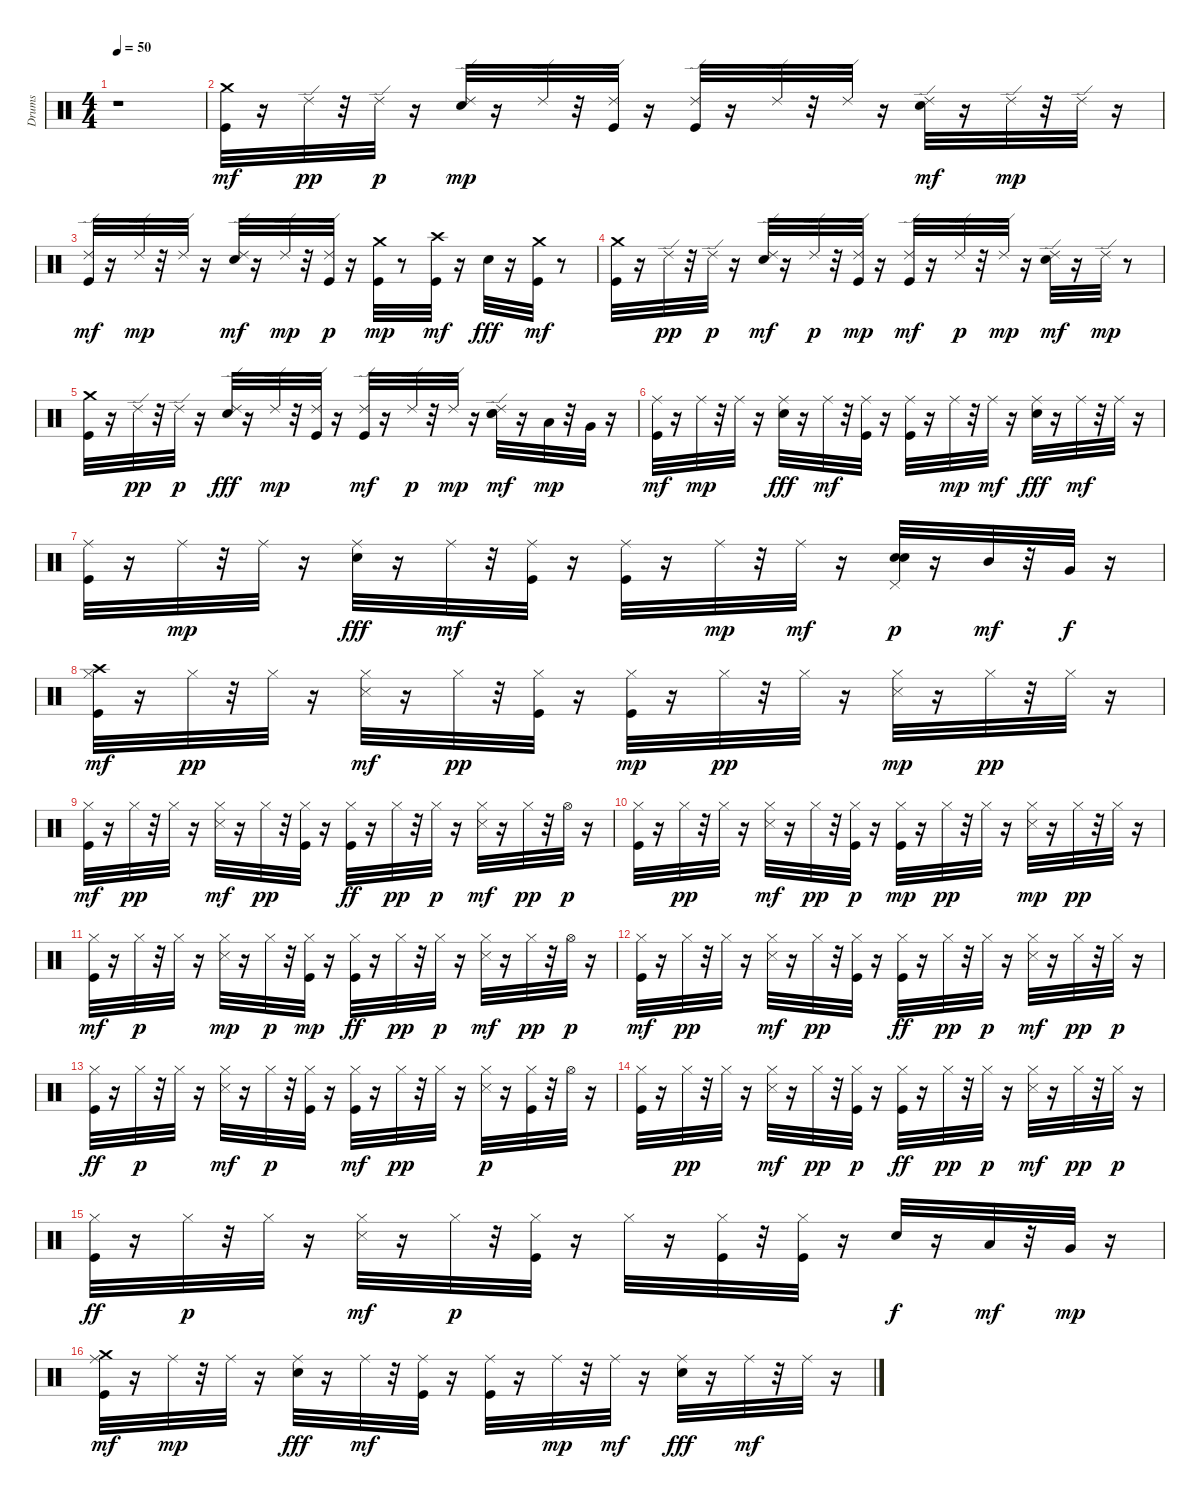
\track ("Drums" "Drums") {instrument percussion}
\staff {score}
\articulation defaults
\ts (4 4)
\tempo 50
\clef neutral
\ks c
r.1{dy mf} |
("Kick (hit)" "Crash medium (hit)").32{balance 8} r.16 "Ride (edge) 2".32{dy pp} r.32 "Ride (edge) 2".32{dy p} r.16 ("Snare (hit) 2" "Ride (edge) 2").32{dy mp} r.16 "Ride (edge) 2".32 r.32 ("Kick (hit)" "Ride (edge) 2").32 r.16 ("Kick (hit)" "Ride (edge) 2").32 r.16 "Ride (edge) 2".32 r.32 "Ride (edge) 2".32 r.16 ("Snare (hit) 2" "Ride (edge) 2").32{dy mf} r.16 "Ride (edge) 2".32{dy mp} r.32 "Ride (edge) 2".32 r.16 |
("Kick (hit)" "Ride (edge) 2").32{dy mf} r.16 "Ride (edge) 2".32{dy mp} r.32 "Ride (edge) 2".32 r.16 ("Snare (hit) 2" "Ride (edge) 2").32{dy mf} r.16 "Ride (edge) 2".32{dy mp} r.32 ("Kick (hit)" "Ride (edge) 2").32{dy p} r.16 ("Kick (hit)" "Crash medium (hit)").32{dy mp} r.8 ("Kick (hit)" "Crash high (hit)").32{dy mf} r.16 "Snare (hit) 2".32{dy fff} r.16 ("Kick (hit)" "Crash medium (hit)").32{dy mf} r.8 |
("Kick (hit)" "Crash medium (hit)").32 r.16 "Ride (edge) 2".32{dy pp} r.32 "Ride (edge) 2".32{dy p} r.16 ("Snare (hit) 2" "Ride (edge) 2").32{dy mf} r.16 "Ride (edge) 2".32{dy p} r.32 ("Kick (hit)" "Ride (edge) 2").32{dy mp} r.16 ("Kick (hit)" "Ride (edge) 2").32{dy mf} r.16 "Ride (edge) 2".32{dy p} r.32 "Ride (edge) 2".32{dy mp} r.16 ("Snare (hit) 2" "Ride (edge) 2").32{dy mf} r.16 "Ride (edge) 2".32{dy mp} r.8 |
("Kick (hit)" "Crash medium (hit)").32 r.16 "Ride (edge) 2".32{dy pp} r.32 "Ride (edge) 2".32{dy p} r.16 ("Snare (hit) 2" "Ride (edge) 2").32{dy fff} r.16 "Ride (edge) 2".32{dy mp} r.32 ("Kick (hit)" "Ride (edge) 2").32 r.16 ("Kick (hit)" "Ride (edge) 2").32{dy mf} r.16 "Ride (edge) 2".32{dy p} r.32 "Ride (edge) 2".32{dy mp} r.16 ("Snare (hit) 2" "Snare (hit) 2" "Ride (edge) 2").32{dy mf} r.16 "Low Tom (hit)".32{dy mp} r.32 "Very Low Tom (hit)".32 r.16 |
("Kick (hit)" "Ride (middle)").32{dy mf} r.16 "Ride (middle)".32{dy mp} r.32 "Ride (middle)".32 r.16 ("Snare (hit) 2" "Ride (middle)").32{dy fff} r.16 "Ride (middle)".32{dy mf} r.32 ("Kick (hit)" "Ride (middle)").32 r.16 ("Kick (hit)" "Ride (middle)").32 r.16 "Ride (middle)".32{dy mp} r.32 "Ride (middle)".32{dy mf} r.16 ("Snare (hit) 2" "Ride (middle)").32{dy fff} r.16 "Ride (middle)".32{dy mf} r.32 "Ride (middle)".32 r.16 |
("Kick (hit)" "Ride (middle)").32 r.16 "Ride (middle)".32{dy mp} r.32 "Ride (middle)".32 r.16 ("Snare (hit) 2" "Ride (middle)").32{dy fff} r.16 "Ride (middle)".32{dy mf} r.32 ("Kick (hit)" "Ride (middle)").32 r.16 ("Kick (hit)" "Ride (middle)").32 r.16 "Ride (middle)".32{dy mp} r.32 "Ride (middle)".32{dy mf} r.16 ("Snare (hit) 2" "Snare (hit) 2" "Pedal Hi-Hat (hit)").32{dy p} r.16 "Mid Tom (hit)".32{dy mf} r.32 "Very Low Tom (hit)".32{dy f} r.16 |
("Crash high (hit)" "Kick (hit)" "Hi-Hat (closed)").32{dy mf} r.16 "Hi-Hat (closed)".32{dy pp} r.32 "Hi-Hat (closed)".32 r.16 ("Snare (side stick) 3" "Hi-Hat (closed)").32{dy mf} r.16 "Hi-Hat (closed)".32{dy pp} r.32 ("Kick (hit)" "Hi-Hat (closed)").32 r.16 ("Kick (hit)" "Hi-Hat (closed)").32{dy mp} r.16 "Hi-Hat (closed)".32{dy pp} r.32 "Hi-Hat (closed)".32 r.16 ("Snare (side stick) 3" "Hi-Hat (closed)").32{dy mp} r.16 "Hi-Hat (closed)".32{dy pp} r.32 "Hi-Hat (closed)".32 r.16 |
("Kick (hit)" "Hi-Hat (closed)").32{dy mf} r.16 "Hi-Hat (closed)".32{dy pp} r.32 "Hi-Hat (closed)".32 r.16 ("Snare (side stick) 3" "Hi-Hat (closed)").32{dy mf} r.16 "Hi-Hat (closed)".32{dy pp} r.32 ("Kick (hit)" "Hi-Hat (closed)").32 r.16 ("Kick (hit)" "Hi-Hat (closed)").32{dy ff} r.16 "Hi-Hat (closed)".32{dy pp} r.32 "Hi-Hat (closed)".32{dy p} r.16 ("Snare (side stick) 3" "Hi-Hat (closed)").32{dy mf} r.16 "Hi-Hat (closed)".32{dy pp} r.32 "Hi-Hat (open)".32{dy p} r.16 |
("Kick (hit)" "Hi-Hat (closed)").32 r.16 "Hi-Hat (closed)".32{dy pp} r.32 "Hi-Hat (closed)".32 r.16 ("Snare (side stick) 3" "Hi-Hat (closed)").32{dy mf} r.16 "Hi-Hat (closed)".32{dy pp} r.32 ("Kick (hit)" "Hi-Hat (closed)").32{dy p} r.16 ("Kick (hit)" "Hi-Hat (closed)").32{dy mp} r.16 "Hi-Hat (closed)".32{dy pp} r.32 "Hi-Hat (closed)".32 r.16 ("Snare (side stick) 3" "Hi-Hat (closed)").32{dy mp} r.16 "Hi-Hat (closed)".32{dy pp} r.32 "Hi-Hat (closed)".32 r.16 |
("Kick (hit)" "Hi-Hat (closed)").32{dy mf} r.16 "Hi-Hat (closed)".32{dy p} r.32 "Hi-Hat (closed)".32 r.16 ("Snare (side stick) 3" "Hi-Hat (closed)").32{dy mp} r.16 "Hi-Hat (closed)".32{dy p} r.32 ("Kick (hit)" "Hi-Hat (closed)").32{dy mp} r.16 ("Kick (hit)" "Hi-Hat (closed)").32{dy ff} r.16 "Hi-Hat (closed)".32{dy pp} r.32 "Hi-Hat (closed)".32{dy p} r.16 ("Snare (side stick) 3" "Hi-Hat (closed)").32{dy mf} r.16 "Hi-Hat (closed)".32{dy pp} r.32 "Hi-Hat (open)".32{dy p} r.16 |
("Kick (hit)" "Hi-Hat (closed)").32{dy mf} r.16 "Hi-Hat (closed)".32{dy pp} r.32 "Hi-Hat (closed)".32 r.16 ("Snare (side stick) 3" "Hi-Hat (closed)").32{dy mf} r.16 "Hi-Hat (closed)".32{dy pp} r.32 ("Kick (hit)" "Hi-Hat (closed)").32 r.16 ("Kick (hit)" "Hi-Hat (closed)").32{dy ff} r.16 "Hi-Hat (closed)".32{dy pp} r.32 "Hi-Hat (closed)".32{dy p} r.16 ("Snare (side stick) 3" "Hi-Hat (closed)").32{dy mf} r.16 "Hi-Hat (closed)".32{dy pp} r.32 "Hi-Hat (closed)".32{dy p} r.16 |
("Kick (hit)" "Hi-Hat (closed)").32{dy ff} r.16 "Hi-Hat (closed)".32{dy p} r.32 "Hi-Hat (closed)".32 r.16 ("Snare (side stick) 3" "Hi-Hat (closed)").32{dy mf} r.16 "Hi-Hat (closed)".32{dy p} r.32 ("Kick (hit)" "Hi-Hat (closed)").32 r.16 ("Kick (hit)" "Hi-Hat (closed)").32{dy mf} r.16 "Hi-Hat (closed)".32{dy pp} r.32 "Hi-Hat (closed)".32 r.16 ("Snare (side stick) 3" "Hi-Hat (closed)").32{dy p} r.16 ("Kick (hit)" "Hi-Hat (closed)").32 r.32 "Hi-Hat (open)".32 r.16 |
("Kick (hit)" "Hi-Hat (closed)").32 r.16 "Hi-Hat (closed)".32{dy pp} r.32 "Hi-Hat (closed)".32 r.16 ("Snare (side stick) 3" "Hi-Hat (closed)").32{dy mf} r.16 "Hi-Hat (closed)".32{dy pp} r.32 ("Kick (hit)" "Hi-Hat (closed)").32{dy p} r.16 ("Kick (hit)" "Hi-Hat (closed)").32{dy ff} r.16 "Hi-Hat (closed)".32{dy pp} r.32 "Hi-Hat (closed)".32{dy p} r.16 ("Snare (side stick) 3" "Hi-Hat (closed)").32{dy mf} r.16 "Hi-Hat (closed)".32{dy pp} r.32 "Hi-Hat (closed)".32{dy p} r.16 |
("Kick (hit)" "Hi-Hat (closed)").32{dy ff} r.16 "Hi-Hat (closed)".32{dy p} r.32 "Hi-Hat (closed)".32 r.16 ("Snare (side stick) 3" "Hi-Hat (closed)").32{dy mf} r.16 "Hi-Hat (closed)".32{dy p} r.32 ("Kick (hit)" "Hi-Hat (closed)").32 r.16 "Hi-Hat (closed)".32 r.16 ("Kick (hit)" "Hi-Hat (closed)").32 r.32 ("Kick (hit)" "Hi-Hat (closed)").32 r.16 "Snare (hit) 2".32{dy f} r.16 "Low Tom (hit)".32{dy mf} r.32 "Very Low Tom (hit)".32{dy mp} r.16 |
("Crash medium (hit)" "Kick (hit)" "Ride (middle)").32{dy mf} r.16 "Ride (middle)".32{dy mp} r.32 "Ride (middle)".32 r.16 ("Snare (hit) 2" "Ride (middle)").32{dy fff} r.16 "Ride (middle)".32{dy mf} r.32 ("Kick (hit)" "Ride (middle)").32 r.16 ("Kick (hit)" "Ride (middle)").32 r.16 "Ride (middle)".32{dy mp} r.32 "Ride (middle)".32{dy mf} r.16 ("Snare (hit) 2" "Ride (middle)").32{dy fff} r.16 "Ride (middle)".32{dy mf} r.32 "Ride (middle)".32 r.16
